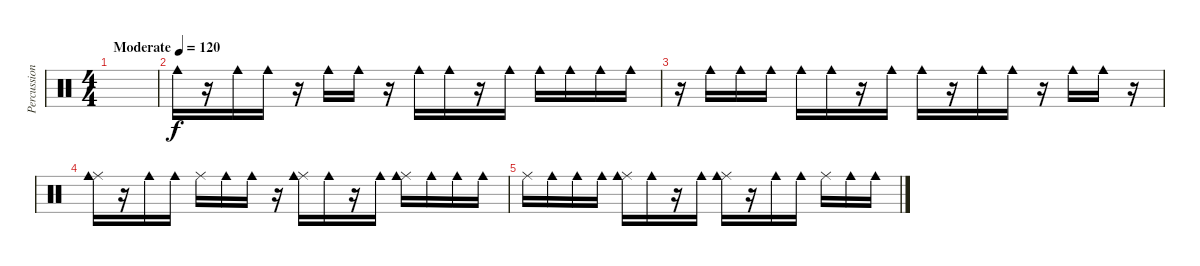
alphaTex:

\track ("Percussions" "Percussion") {instrument percussion}
\staff {score}
\articulation defaults
\ts (4 4)
\tempo (120 "Moderate")
\clef neutral
\ks c
|
"Cowbell medium (hit)".16 r.16 "Cowbell medium (hit)".16 "Cowbell medium (hit)".16 r.16 "Cowbell medium (hit)".16 "Cowbell medium (hit)".16 r.16 "Cowbell medium (hit)".16 "Cowbell medium (hit)".16 r.16 "Cowbell medium (hit)".16 "Cowbell medium (hit)".16 "Cowbell medium (hit)".16 "Cowbell medium (hit)".16 "Cowbell medium (hit)".16 |
r.16 "Cowbell medium (hit)".16 "Cowbell medium (hit)".16 "Cowbell medium (hit)".16 "Cowbell medium (hit)".16 "Cowbell medium (hit)".16 r.16 "Cowbell medium (hit)".16 "Cowbell medium (hit)".16 r.16 "Cowbell medium (hit)".16 "Cowbell medium (hit)".16 r.16 "Cowbell medium (hit)".16 "Cowbell medium (hit)".16 r.16 |
("Ride (middle)" "Cowbell medium (hit)").16 r.16 "Cowbell medium (hit)".16 "Cowbell medium (hit)".16 "Ride (middle)".16 "Cowbell medium (hit)".16 "Cowbell medium (hit)".16 r.16 ("Ride (middle)" "Cowbell medium (hit)").16 "Cowbell medium (hit)".16 r.16 "Cowbell medium (hit)".16 ("Ride (middle)" "Cowbell medium (hit)").16 "Cowbell medium (hit)".16 "Cowbell medium (hit)".16 "Cowbell medium (hit)".16 |
"Ride (middle)".16 "Cowbell medium (hit)".16 "Cowbell medium (hit)".16 "Cowbell medium (hit)".16 ("Ride (middle)" "Cowbell medium (hit)").16 "Cowbell medium (hit)".16 r.16 "Cowbell medium (hit)".16 ("Ride (middle)" "Cowbell medium (hit)").16 r.16 "Cowbell medium (hit)".16 "Cowbell medium (hit)".16 "Ride (middle)".16 "Cowbell medium (hit)".16 "Cowbell medium (hit)".16
